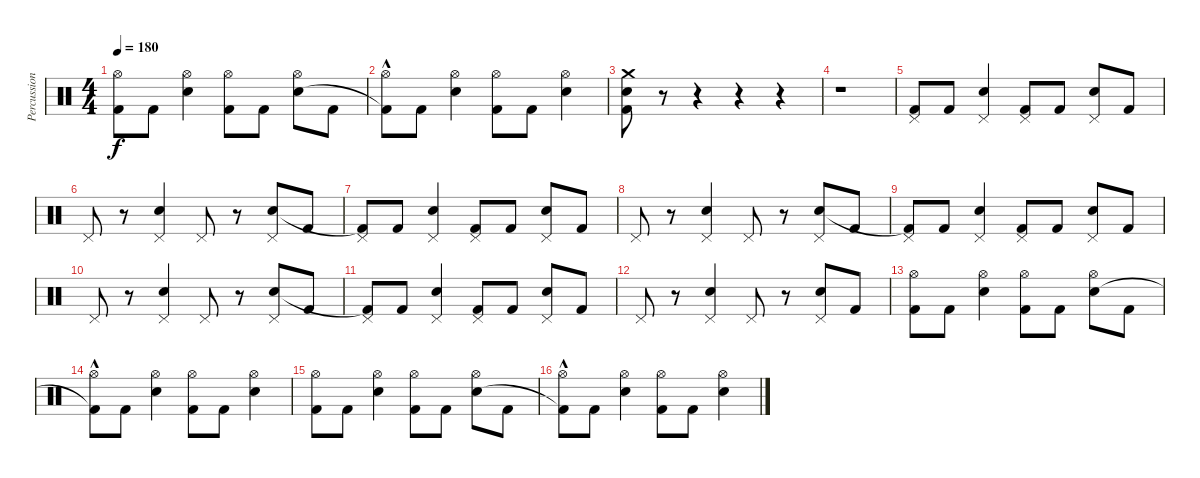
\track ("Percussion" "Percussion") {instrument percussion}
\staff {score}
\articulation defaults
\ts (4 4)
\tempo 180
\clef neutral
\ks c
("Hi-Hat (open)" "Kick (hit) 2").8{dy f} "Kick (hit) 2".8 ("Hi-Hat (open)" "Electric Snare (hit)").4 ("Hi-Hat (open)" "Kick (hit) 2").8 "Kick (hit) 2".8 ("Hi-Hat (open)" "Electric Snare (hit)").8 "Kick (hit) 2".8 |
("Hi-Hat (open)" "Kick (hit) 2"{hac t}).8 "Kick (hit) 2".8 ("Hi-Hat (open)" "Electric Snare (hit)").4 ("Hi-Hat (open)" "Kick (hit) 2").8 "Kick (hit) 2".8 ("Hi-Hat (open)" "Electric Snare (hit)").4 |
("Crash medium (hit)" "Electric Snare (hit)" "Kick (hit) 2").8 r.8 r.4 r.4 r.4 |
r.1 |
("Pedal Hi-Hat (hit)" "Kick (hit) 2").8 "Kick (hit) 2".8 ("Pedal Hi-Hat (hit)" "Electric Snare (hit)").4 ("Pedal Hi-Hat (hit)" "Kick (hit) 2").8 "Kick (hit) 2".8 ("Pedal Hi-Hat (hit)" "Electric Snare (hit)").8 "Kick (hit) 2".8 |
"Pedal Hi-Hat (hit)".8 r.8 ("Pedal Hi-Hat (hit)" "Electric Snare (hit)").4 "Pedal Hi-Hat (hit)".8 r.8 ("Pedal Hi-Hat (hit)" "Electric Snare (hit)").8 "Kick (hit) 2".8 |
("Pedal Hi-Hat (hit)" "Kick (hit) 2"{t}).8 "Kick (hit) 2".8 ("Pedal Hi-Hat (hit)" "Electric Snare (hit)").4 ("Pedal Hi-Hat (hit)" "Kick (hit) 2").8 "Kick (hit) 2".8 ("Pedal Hi-Hat (hit)" "Electric Snare (hit)").8 "Kick (hit) 2".8 |
"Pedal Hi-Hat (hit)".8 r.8 ("Pedal Hi-Hat (hit)" "Electric Snare (hit)").4 "Pedal Hi-Hat (hit)".8 r.8 ("Pedal Hi-Hat (hit)" "Electric Snare (hit)").8 "Kick (hit) 2".8 |
("Pedal Hi-Hat (hit)" "Kick (hit) 2"{t}).8 "Kick (hit) 2".8 ("Pedal Hi-Hat (hit)" "Electric Snare (hit)").4 ("Pedal Hi-Hat (hit)" "Kick (hit) 2").8 "Kick (hit) 2".8 ("Pedal Hi-Hat (hit)" "Electric Snare (hit)").8 "Kick (hit) 2".8 |
"Pedal Hi-Hat (hit)".8 r.8 ("Pedal Hi-Hat (hit)" "Electric Snare (hit)").4 "Pedal Hi-Hat (hit)".8 r.8 ("Pedal Hi-Hat (hit)" "Electric Snare (hit)").8 "Kick (hit) 2".8 |
("Pedal Hi-Hat (hit)" "Kick (hit) 2"{t}).8 "Kick (hit) 2".8 ("Pedal Hi-Hat (hit)" "Electric Snare (hit)").4 ("Pedal Hi-Hat (hit)" "Kick (hit) 2").8 "Kick (hit) 2".8 ("Pedal Hi-Hat (hit)" "Electric Snare (hit)").8 "Kick (hit) 2".8 |
"Pedal Hi-Hat (hit)".8 r.8 ("Pedal Hi-Hat (hit)" "Electric Snare (hit)").4 "Pedal Hi-Hat (hit)".8 r.8 ("Pedal Hi-Hat (hit)" "Electric Snare (hit)").8 "Kick (hit) 2".8 |
("Hi-Hat (open)" "Kick (hit) 2").8 "Kick (hit) 2".8 ("Hi-Hat (open)" "Electric Snare (hit)").4 ("Hi-Hat (open)" "Kick (hit) 2").8 "Kick (hit) 2".8 ("Hi-Hat (open)" "Electric Snare (hit)").8 "Kick (hit) 2".8 |
("Hi-Hat (open)" "Kick (hit) 2"{hac t}).8 "Kick (hit) 2".8 ("Hi-Hat (open)" "Electric Snare (hit)").4 ("Hi-Hat (open)" "Kick (hit) 2").8 "Kick (hit) 2".8 ("Hi-Hat (open)" "Electric Snare (hit)").4 |
("Hi-Hat (open)" "Kick (hit) 2").8 "Kick (hit) 2".8 ("Hi-Hat (open)" "Electric Snare (hit)").4 ("Hi-Hat (open)" "Kick (hit) 2").8 "Kick (hit) 2".8 ("Hi-Hat (open)" "Electric Snare (hit)").8 "Kick (hit) 2".8 |
("Hi-Hat (open)" "Kick (hit) 2"{hac t}).8 "Kick (hit) 2".8 ("Hi-Hat (open)" "Electric Snare (hit)").4 ("Hi-Hat (open)" "Kick (hit) 2").8 "Kick (hit) 2".8 ("Hi-Hat (open)" "Electric Snare (hit)").4
